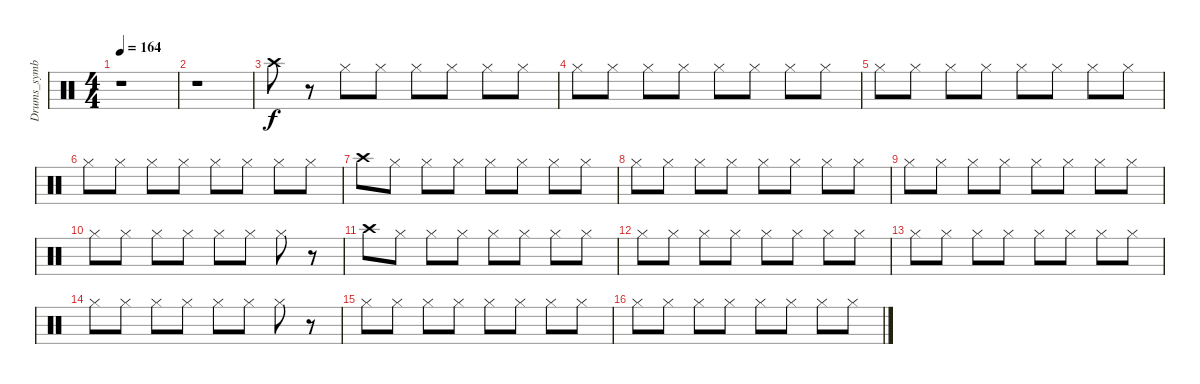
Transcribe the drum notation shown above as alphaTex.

\track ("Drums_symbal" "Drums_symb") {instrument percussion}
\staff {score}
\articulation defaults
\ts (4 4)
\tempo 164
\clef neutral
\ks c
r.1{dy f} |
r.1 |
"Crash high (hit)".8 r.8 "Hi-Hat (closed)".8 "Hi-Hat (closed)".8 "Hi-Hat (closed)".8 "Hi-Hat (closed)".8 "Hi-Hat (closed)".8 "Hi-Hat (closed)".8 |
"Hi-Hat (closed)".8 "Hi-Hat (closed)".8 "Hi-Hat (closed)".8 "Hi-Hat (closed)".8 "Hi-Hat (closed)".8 "Hi-Hat (closed)".8 "Hi-Hat (closed)".8 "Hi-Hat (closed)".8 |
"Hi-Hat (closed)".8 "Hi-Hat (closed)".8 "Hi-Hat (closed)".8 "Hi-Hat (closed)".8 "Hi-Hat (closed)".8 "Hi-Hat (closed)".8 "Hi-Hat (closed)".8 "Hi-Hat (closed)".8 |
"Hi-Hat (closed)".8 "Hi-Hat (closed)".8 "Hi-Hat (closed)".8 "Hi-Hat (closed)".8 "Hi-Hat (closed)".8 "Hi-Hat (closed)".8 "Hi-Hat (closed)".8 "Hi-Hat (closed)".8 |
"Crash high (hit)".8 "Hi-Hat (closed)".8 "Hi-Hat (closed)".8 "Hi-Hat (closed)".8 "Hi-Hat (closed)".8 "Hi-Hat (closed)".8 "Hi-Hat (closed)".8 "Hi-Hat (closed)".8 |
"Hi-Hat (closed)".8 "Hi-Hat (closed)".8 "Hi-Hat (closed)".8 "Hi-Hat (closed)".8 "Hi-Hat (closed)".8 "Hi-Hat (closed)".8 "Hi-Hat (closed)".8 "Hi-Hat (closed)".8 |
"Hi-Hat (closed)".8 "Hi-Hat (closed)".8 "Hi-Hat (closed)".8 "Hi-Hat (closed)".8 "Hi-Hat (closed)".8 "Hi-Hat (closed)".8 "Hi-Hat (closed)".8 "Hi-Hat (closed)".8 |
"Hi-Hat (closed)".8 "Hi-Hat (closed)".8 "Hi-Hat (closed)".8 "Hi-Hat (closed)".8 "Hi-Hat (closed)".8 "Hi-Hat (closed)".8 "Hi-Hat (closed)".8 r.8 |
"Crash high (hit)".8 "Hi-Hat (closed)".8 "Hi-Hat (closed)".8 "Hi-Hat (closed)".8 "Hi-Hat (closed)".8 "Hi-Hat (closed)".8 "Hi-Hat (closed)".8 "Hi-Hat (closed)".8 |
"Hi-Hat (closed)".8 "Hi-Hat (closed)".8 "Hi-Hat (closed)".8 "Hi-Hat (closed)".8 "Hi-Hat (closed)".8 "Hi-Hat (closed)".8 "Hi-Hat (closed)".8 "Hi-Hat (closed)".8 |
"Hi-Hat (closed)".8 "Hi-Hat (closed)".8 "Hi-Hat (closed)".8 "Hi-Hat (closed)".8 "Hi-Hat (closed)".8 "Hi-Hat (closed)".8 "Hi-Hat (closed)".8 "Hi-Hat (closed)".8 |
"Hi-Hat (closed)".8 "Hi-Hat (closed)".8 "Hi-Hat (closed)".8 "Hi-Hat (closed)".8 "Hi-Hat (closed)".8 "Hi-Hat (closed)".8 "Hi-Hat (closed)".8 r.8 |
"Hi-Hat (closed)".8 "Hi-Hat (closed)".8 "Hi-Hat (closed)".8 "Hi-Hat (closed)".8 "Hi-Hat (closed)".8 "Hi-Hat (closed)".8 "Hi-Hat (closed)".8 "Hi-Hat (closed)".8 |
"Hi-Hat (closed)".8 "Hi-Hat (closed)".8 "Hi-Hat (closed)".8 "Hi-Hat (closed)".8 "Hi-Hat (closed)".8 "Hi-Hat (closed)".8 "Hi-Hat (closed)".8 "Hi-Hat (closed)".8
